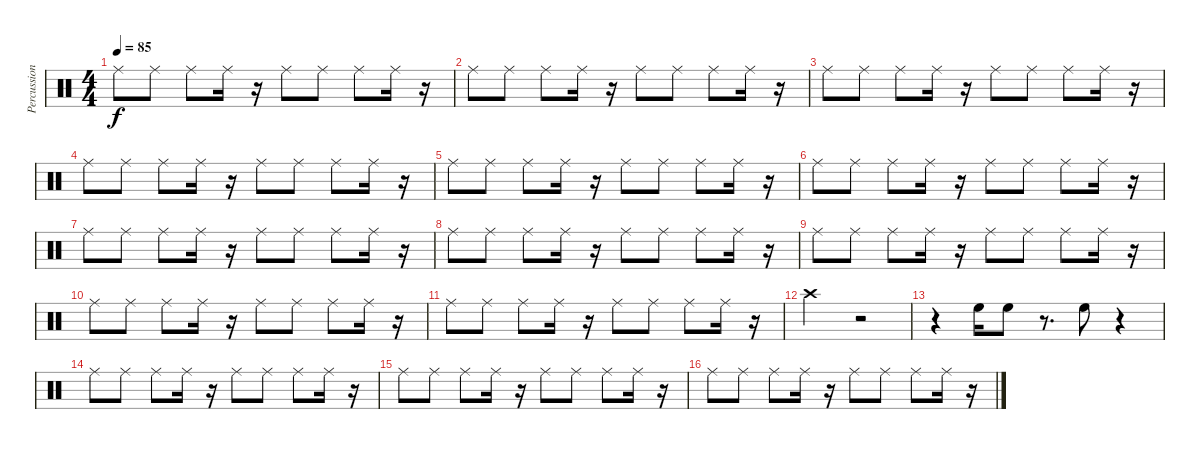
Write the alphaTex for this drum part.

\track ("Percussion" "Percussion") {instrument percussion}
\staff {score}
\articulation defaults
\ts (4 4)
\tempo 85
\clef neutral
\ks c "Ride (middle)".8{dy f} "Ride (middle)".8 "Ride (middle)".8 "Ride (middle)".16
r.16 "Ride (middle)".8 "Ride (middle)".8 "Ride (middle)".8 "Ride (middle)".16 r.16 |
"Ride (middle)".8 "Ride (middle)".8 "Ride (middle)".8 "Ride (middle)".16 r.16 "Ride (middle)".8 "Ride (middle)".8 "Ride (middle)".8 "Ride (middle)".16 r.16 |
"Ride (middle)".8 "Ride (middle)".8 "Ride (middle)".8 "Ride (middle)".16 r.16 "Ride (middle)".8 "Ride (middle)".8 "Ride (middle)".8 "Ride (middle)".16 r.16 |
"Ride (middle)".8 "Ride (middle)".8 "Ride (middle)".8 "Ride (middle)".16 r.16 "Ride (middle)".8 "Ride (middle)".8 "Ride (middle)".8 "Ride (middle)".16 r.16 |
"Ride (middle)".8 "Ride (middle)".8 "Ride (middle)".8 "Ride (middle)".16 r.16 "Ride (middle)".8 "Ride (middle)".8 "Ride (middle)".8 "Ride (middle)".16 r.16 |
"Ride (middle)".8 "Ride (middle)".8 "Ride (middle)".8 "Ride (middle)".16 r.16 "Ride (middle)".8 "Ride (middle)".8 "Ride (middle)".8 "Ride (middle)".16 r.16 |
"Ride (middle)".8 "Ride (middle)".8 "Ride (middle)".8 "Ride (middle)".16 r.16 "Ride (middle)".8 "Ride (middle)".8 "Ride (middle)".8 "Ride (middle)".16 r.16 |
"Ride (middle)".8 "Ride (middle)".8 "Ride (middle)".8 "Ride (middle)".16 r.16 "Ride (middle)".8 "Ride (middle)".8 "Ride (middle)".8 "Ride (middle)".16 r.16 |
"Ride (middle)".8 "Ride (middle)".8 "Ride (middle)".8 "Ride (middle)".16 r.16 "Ride (middle)".8 "Ride (middle)".8 "Ride (middle)".8 "Ride (middle)".16 r.16 |
"Ride (middle)".8 "Ride (middle)".8 "Ride (middle)".8 "Ride (middle)".16 r.16 "Ride (middle)".8 "Ride (middle)".8 "Ride (middle)".8 "Ride (middle)".16 r.16 |
"Ride (middle)".8 "Ride (middle)".8 "Ride (middle)".8 "Ride (middle)".16 r.16 "Ride (middle)".8 "Ride (middle)".8 "Ride (middle)".8 "Ride (middle)".16 r.16 |
"Crash high (hit)".2 r.2 |
r.4 "High Floor Tom (hit)".16 "High Floor Tom (hit)".8 r.8{d} "High Floor Tom (hit)".8 r.4 |
"Ride (middle)".8 "Ride (middle)".8 "Ride (middle)".8 "Ride (middle)".16 r.16 "Ride (middle)".8 "Ride (middle)".8 "Ride (middle)".8 "Ride (middle)".16 r.16 |
"Ride (middle)".8 "Ride (middle)".8 "Ride (middle)".8 "Ride (middle)".16 r.16 "Ride (middle)".8 "Ride (middle)".8 "Ride (middle)".8 "Ride (middle)".16 r.16 |
"Ride (middle)".8 "Ride (middle)".8 "Ride (middle)".8 "Ride (middle)".16 r.16 "Ride (middle)".8 "Ride (middle)".8 "Ride (middle)".8 "Ride (middle)".16 r.16
